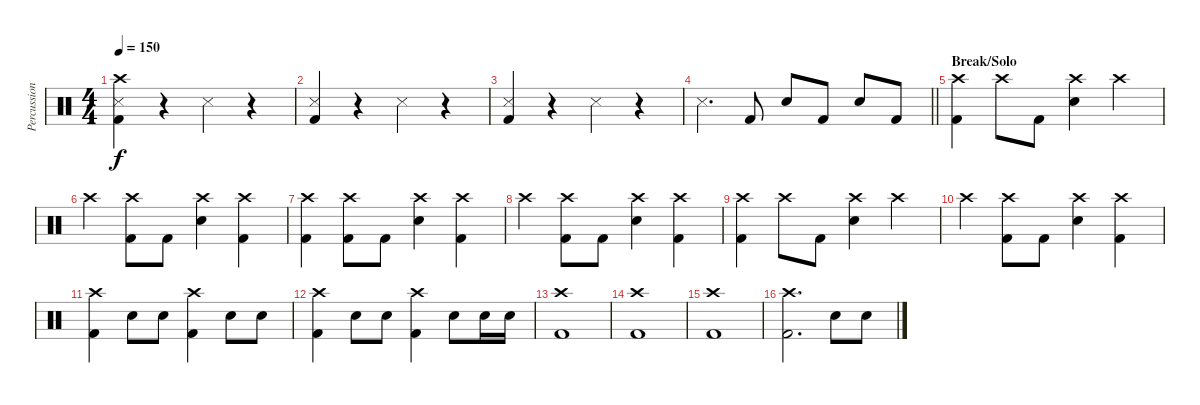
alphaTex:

\track ("Percussion" "Percussion") {instrument percussion}
\staff {score}
\articulation defaults
\ts (4 4)
\tempo 150
\clef neutral
\ks c
("Crash high (hit)" "Snare (side stick) 3" "Kick (hit) 2").4{dy f} r.4 "Snare (side stick) 3".4 r.4 |
("Snare (side stick) 3" "Kick (hit) 2").4 r.4 "Snare (side stick) 3".4 r.4 |
("Snare (side stick) 3" "Kick (hit) 2").4 r.4 "Snare (side stick) 3".4 r.4 |
\barLineRight lightlight "Snare (side stick) 3".4{d} "Kick (hit) 2".8 "Snare (hit) 2".8 "Kick (hit) 2".8 "Snare (hit) 2".8 "Kick (hit) 2".8
|
\section ("" "Break/Solo")
("Crash high (hit)" "Kick (hit) 2").4 "Crash high (hit)".8 "Kick (hit) 2".8 ("Crash high (hit)" "Snare (hit) 2").4 "Crash high (hit)".4 |
"Crash high (hit)".4 ("Crash high (hit)" "Kick (hit) 2").8 "Kick (hit) 2".8 ("Crash high (hit)" "Snare (hit) 2").4 ("Crash high (hit)" "Kick (hit) 2").4 |
("Crash high (hit)" "Kick (hit) 2").4 ("Crash high (hit)" "Kick (hit) 2").8 "Kick (hit) 2".8 ("Crash high (hit)" "Snare (hit) 2").4 ("Crash high (hit)" "Kick (hit) 2").4 |
"Crash high (hit)".4 ("Crash high (hit)" "Kick (hit) 2").8 "Kick (hit) 2".8 ("Crash high (hit)" "Snare (hit) 2").4 ("Crash high (hit)" "Kick (hit) 2").4 |
("Crash high (hit)" "Kick (hit) 2").4 "Crash high (hit)".8 "Kick (hit) 2".8 ("Crash high (hit)" "Snare (hit) 2").4 "Crash high (hit)".4 |
"Crash high (hit)".4 ("Crash high (hit)" "Kick (hit) 2").8 "Kick (hit) 2".8 ("Crash high (hit)" "Snare (hit) 2").4 ("Crash high (hit)" "Kick (hit) 2").4 |
("Crash high (hit)" "Kick (hit) 2").4 "Snare (hit) 2".8 "Snare (hit) 2".8 ("Crash high (hit)" "Kick (hit) 2").4 "Snare (hit) 2".8 "Snare (hit) 2".8 |
("Crash high (hit)" "Kick (hit) 2").4 "Snare (hit) 2".8 "Snare (hit) 2".8 ("Crash high (hit)" "Kick (hit) 2").4 "Snare (hit) 2".8 "Snare (hit) 2".16 "Snare (hit) 2".16 |
("Crash high (hit)" "Kick (hit) 2").1 |
("Crash high (hit)" "Kick (hit) 2").1 |
("Crash high (hit)" "Kick (hit) 2").1 |
("Crash high (hit)" "Kick (hit) 2").2{d} "Snare (hit) 2".8 "Snare (hit) 2".8
